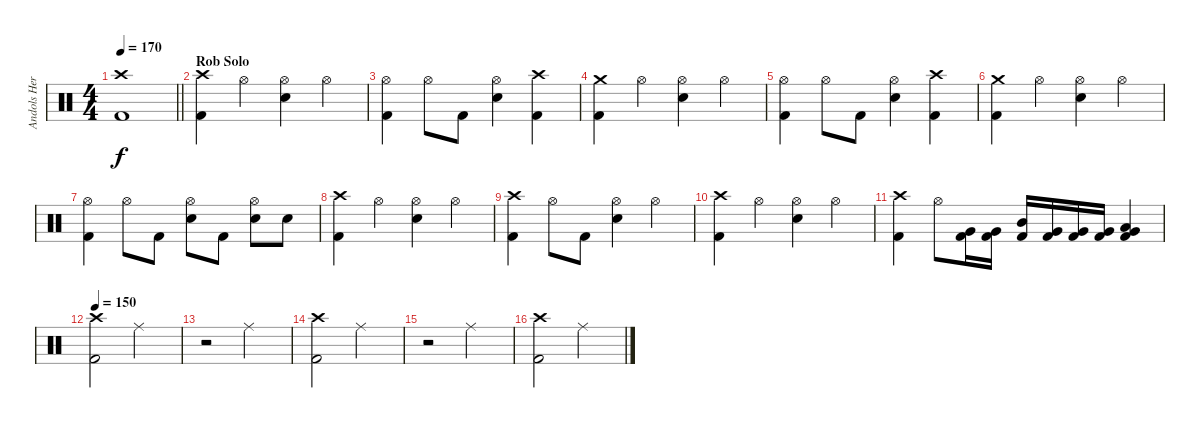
\track ("Andols Herrick" "Andols Her") {instrument percussion}
\staff {score}
\articulation defaults
\ts (4 4)
\tempo 170
\clef neutral
\barLineRight lightlight
\ks c
("Crash high (hit)" "Kick (hit) 2").1{dy f} |
\section ("" "Rob Solo")
("Crash high (hit)" "Kick (hit) 2").4 "Hi-Hat (open)".4 ("Hi-Hat (open)" "Electric Snare (hit)").4 "Hi-Hat (open)".4 |
("Hi-Hat (open)" "Kick (hit) 2").4 "Hi-Hat (open)".8 "Kick (hit) 2".8 ("Hi-Hat (open)" "Electric Snare (hit)").4 ("Crash high (hit)" "Kick (hit) 2").4 |
("Crash medium (hit)" "Kick (hit) 2").4 "Hi-Hat (open)".4 ("Hi-Hat (open)" "Electric Snare (hit)").4 "Hi-Hat (open)".4 |
("Hi-Hat (open)" "Kick (hit) 2").4 "Hi-Hat (open)".8 "Kick (hit) 2".8 ("Hi-Hat (open)" "Electric Snare (hit)").4 ("Crash high (hit)" "Kick (hit) 2").4 |
("Crash medium (hit)" "Kick (hit) 2").4 "Hi-Hat (open)".4 ("Hi-Hat (open)" "Electric Snare (hit)").4 "Hi-Hat (open)".4 |
("Hi-Hat (open)" "Kick (hit) 2").4 "Hi-Hat (open)".8 "Kick (hit) 2".8 ("Hi-Hat (open)" "Electric Snare (hit)").8 "Kick (hit) 2".8 ("Hi-Hat (open)" "Electric Snare (hit)").8 "Electric Snare (hit)".8 |
("Crash high (hit)" "Kick (hit) 2").4 "Hi-Hat (open)".4 ("Hi-Hat (open)" "Electric Snare (hit)").4 "Hi-Hat (open)".4 |
("Crash high (hit)" "Kick (hit) 2").4 "Hi-Hat (open)".8 "Kick (hit) 2".8 ("Hi-Hat (open)" "Electric Snare (hit)").4 "Hi-Hat (open)".4 |
("Crash high (hit)" "Kick (hit) 2").4 "Hi-Hat (open)".4 ("Hi-Hat (open)" "Electric Snare (hit)").4 "Hi-Hat (open)".4 |
("Crash high (hit)" "Kick (hit) 2").4 "Hi-Hat (open)".8 ("Very Low Tom (hit)" "Kick (hit) 2").16 ("Very Low Tom (hit)" "Kick (hit) 2").16 ("Mid Tom (hit)" "Kick (hit) 2").16 ("Very Low Tom (hit)" "Kick (hit) 2").16 ("Very Low Tom (hit)" "Kick (hit) 2").16 ("Very Low Tom (hit)" "Kick (hit) 2").16 ("Low Tom (hit)" "Very Low Tom (hit)" "Kick (hit) 2").4 |
\tempo 150
("Crash high (hit)" "Kick (hit) 2").2 "Ride (middle)".2 |
r.2 "Ride (middle)".2 |
("Crash high (hit)" "Kick (hit) 2").2 "Ride (middle)".2 |
r.2 "Ride (middle)".2 |
("Crash high (hit)" "Kick (hit) 2").2 "Ride (middle)".2
